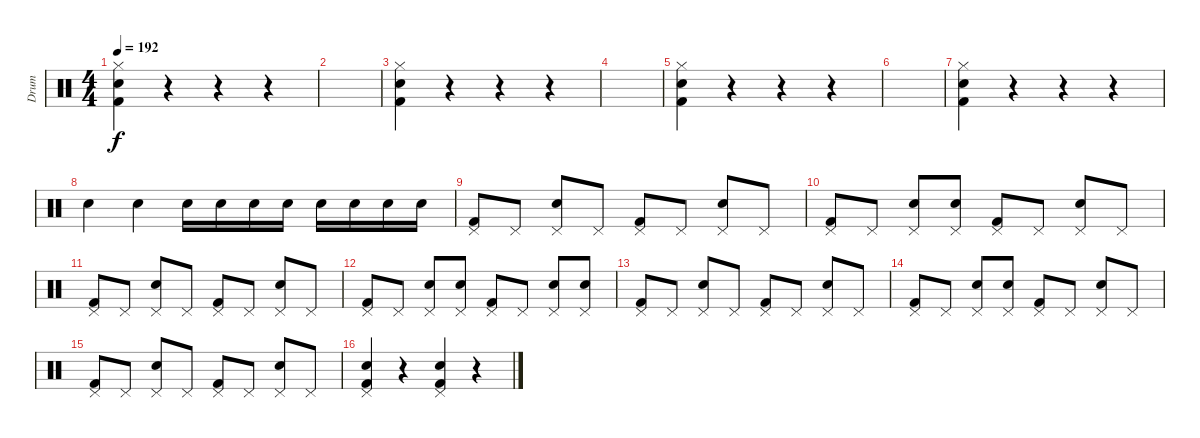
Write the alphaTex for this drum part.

\track ("Drum" "Drum") {instrument percussion}
\staff {score}
\articulation defaults
\ts (4 4)
\tempo 192
\clef neutral
\ks c
("Hi-Hat (closed)" "Electric Snare (hit)" "Kick (hit) 2").4{dy f} r.4 r.4 r.4 |
|
("Hi-Hat (closed)" "Electric Snare (hit)" "Kick (hit) 2").4 r.4 r.4 r.4 |
|
("Hi-Hat (closed)" "Electric Snare (hit)" "Kick (hit) 2").4 r.4 r.4 r.4 |
|
("Hi-Hat (closed)" "Electric Snare (hit)" "Kick (hit) 2").4 r.4 r.4 r.4 |
"Electric Snare (hit)".4 "Electric Snare (hit)".4 "Electric Snare (hit)".16 "Electric Snare (hit)".16 "Electric Snare (hit)".16 "Electric Snare (hit)".16 "Electric Snare (hit)".16 "Electric Snare (hit)".16 "Electric Snare (hit)".16 "Electric Snare (hit)".16 |
("Pedal Hi-Hat (hit)" "Kick (hit) 2").8 "Pedal Hi-Hat (hit)".8 ("Pedal Hi-Hat (hit)" "Electric Snare (hit)").8 "Pedal Hi-Hat (hit)".8 ("Pedal Hi-Hat (hit)" "Kick (hit) 2").8 "Pedal Hi-Hat (hit)".8 ("Pedal Hi-Hat (hit)" "Electric Snare (hit)").8 "Pedal Hi-Hat (hit)".8 |
("Pedal Hi-Hat (hit)" "Kick (hit) 2").8 "Pedal Hi-Hat (hit)".8 ("Pedal Hi-Hat (hit)" "Electric Snare (hit)").8 ("Pedal Hi-Hat (hit)" "Electric Snare (hit)").8 ("Pedal Hi-Hat (hit)" "Kick (hit) 2").8 "Pedal Hi-Hat (hit)".8 ("Pedal Hi-Hat (hit)" "Electric Snare (hit)").8 "Pedal Hi-Hat (hit)".8 |
("Pedal Hi-Hat (hit)" "Kick (hit) 2").8 "Pedal Hi-Hat (hit)".8 ("Pedal Hi-Hat (hit)" "Electric Snare (hit)").8 "Pedal Hi-Hat (hit)".8 ("Pedal Hi-Hat (hit)" "Kick (hit) 2").8 "Pedal Hi-Hat (hit)".8 ("Pedal Hi-Hat (hit)" "Electric Snare (hit)").8 "Pedal Hi-Hat (hit)".8 |
("Pedal Hi-Hat (hit)" "Kick (hit) 2").8 "Pedal Hi-Hat (hit)".8 ("Pedal Hi-Hat (hit)" "Electric Snare (hit)").8 ("Pedal Hi-Hat (hit)" "Electric Snare (hit)").8 ("Pedal Hi-Hat (hit)" "Kick (hit) 2").8 "Pedal Hi-Hat (hit)".8 ("Pedal Hi-Hat (hit)" "Electric Snare (hit)").8 ("Pedal Hi-Hat (hit)" "Electric Snare (hit)").8 |
("Pedal Hi-Hat (hit)" "Kick (hit) 2").8 "Pedal Hi-Hat (hit)".8 ("Pedal Hi-Hat (hit)" "Electric Snare (hit)").8 "Pedal Hi-Hat (hit)".8 ("Pedal Hi-Hat (hit)" "Kick (hit) 2").8 "Pedal Hi-Hat (hit)".8 ("Pedal Hi-Hat (hit)" "Electric Snare (hit)").8 "Pedal Hi-Hat (hit)".8 |
("Pedal Hi-Hat (hit)" "Kick (hit) 2").8 "Pedal Hi-Hat (hit)".8 ("Pedal Hi-Hat (hit)" "Electric Snare (hit)").8 ("Pedal Hi-Hat (hit)" "Electric Snare (hit)").8 ("Pedal Hi-Hat (hit)" "Kick (hit) 2").8 "Pedal Hi-Hat (hit)".8 ("Pedal Hi-Hat (hit)" "Electric Snare (hit)").8 "Pedal Hi-Hat (hit)".8 |
("Pedal Hi-Hat (hit)" "Kick (hit) 2").8 "Pedal Hi-Hat (hit)".8 ("Pedal Hi-Hat (hit)" "Electric Snare (hit)").8 "Pedal Hi-Hat (hit)".8 ("Pedal Hi-Hat (hit)" "Kick (hit) 2").8 "Pedal Hi-Hat (hit)".8 ("Pedal Hi-Hat (hit)" "Electric Snare (hit)").8 "Pedal Hi-Hat (hit)".8 |
("Pedal Hi-Hat (hit)" "Electric Snare (hit)" "Kick (hit) 2").4 r.4 ("Pedal Hi-Hat (hit)" "Electric Snare (hit)" "Kick (hit) 2").4 r.4
